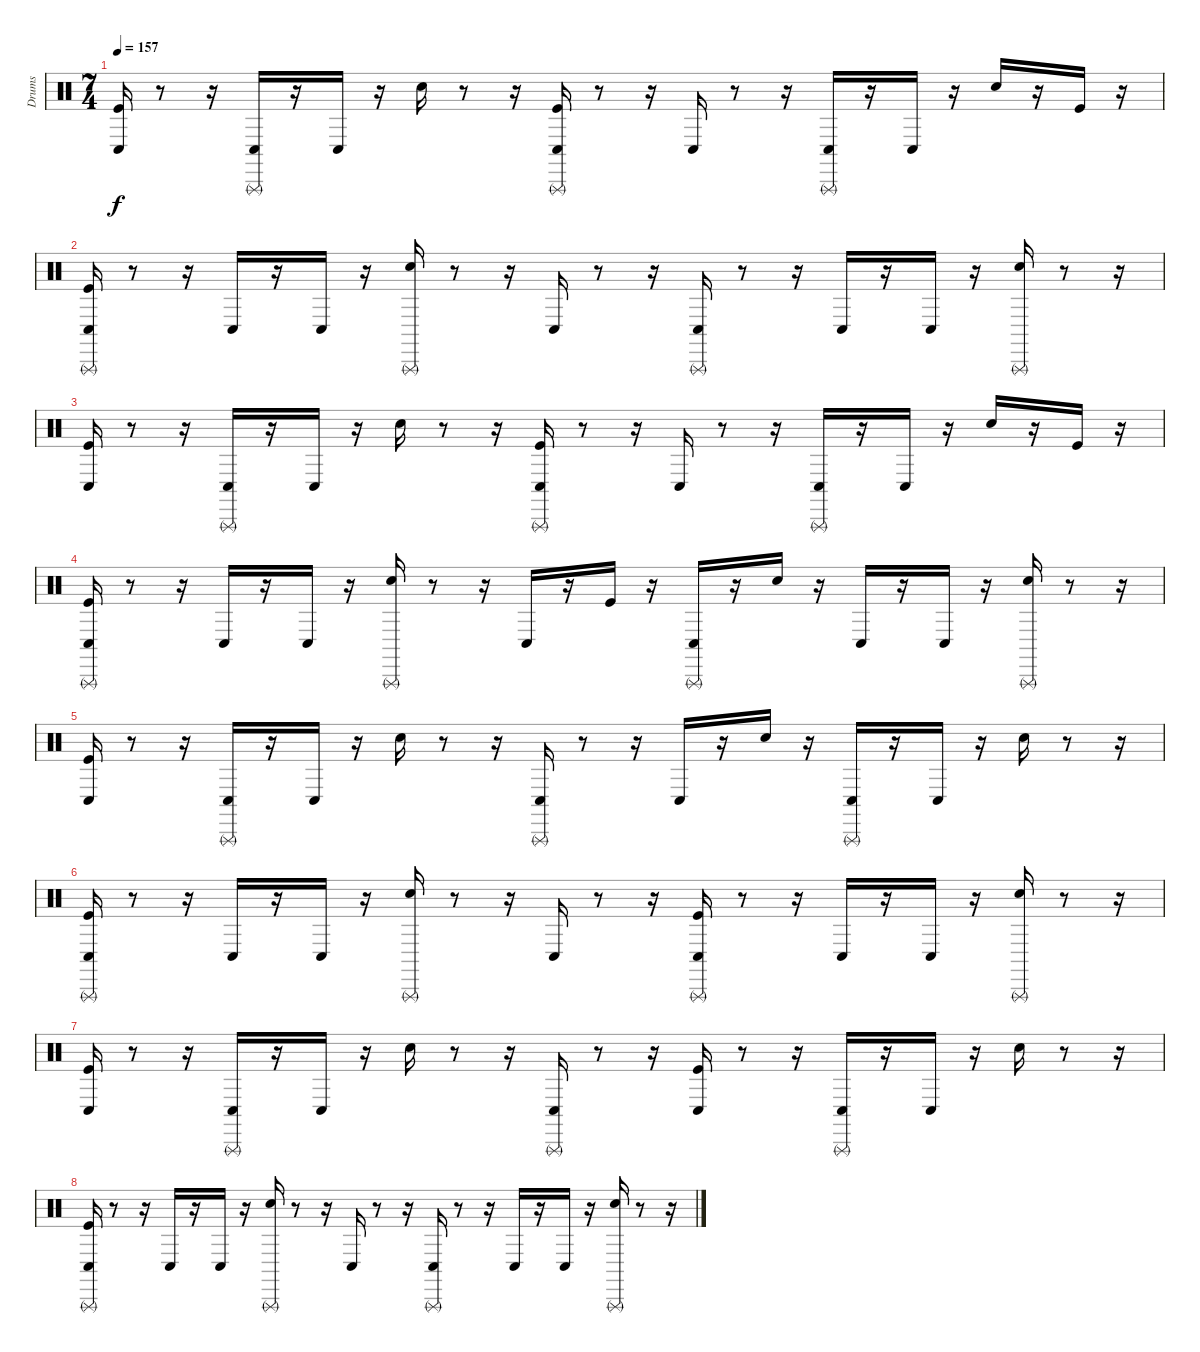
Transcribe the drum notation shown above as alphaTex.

\track ("Drums" "Drums") {instrument percussion}
\staff {score}
\articulation defaults
\ts (7 4)
\tempo 157
\clef neutral
\ks c
("Conga low (hit)" "Kick (hit)").16{dy f} r.8 r.16 ("Triangle (rnute)" "Conga low (hit)").16 r.16 "Conga low (hit)".16 r.16 "Snare (hit) 2".16 r.8 r.16 ("Conga low (hit)" "Kick (hit)" "Triangle (rnute)").16 r.8 r.16 "Conga low (hit)".16 r.8 r.16 ("Conga low (hit)" "Triangle (rnute)").16 r.16 "Conga low (hit)".16 r.16 "Snare (hit) 2".16 r.16 "Kick (hit)".16 r.16 |
("Conga low (hit)" "Kick (hit)" "Triangle (rnute)").16 r.8 r.16 "Conga low (hit)".16 r.16 "Conga low (hit)".16 r.16 ("Triangle (rnute)" "Snare (hit) 2").16 r.8 r.16 "Conga low (hit)".16 r.8 r.16 ("Triangle (rnute)" "Conga low (hit)").16 r.8 r.16 "Conga low (hit)".16 r.16 "Conga low (hit)".16 r.16 ("Snare (hit) 2" "Triangle (rnute)").16 r.8 r.16 |
("Kick (hit)" "Conga low (hit)").16 r.8 r.16 ("Triangle (rnute)" "Conga low (hit)").16 r.16 "Conga low (hit)".16 r.16 "Snare (hit) 2".16 r.8 r.16 ("Triangle (rnute)" "Kick (hit)" "Conga low (hit)").16 r.8 r.16 "Conga low (hit)".16 r.8 r.16 ("Conga low (hit)" "Triangle (rnute)").16 r.16 "Conga low (hit)".16 r.16 "Snare (hit) 2".16 r.16 "Kick (hit)".16 r.16 |
("Conga low (hit)" "Kick (hit)" "Triangle (rnute)").16 r.8 r.16 "Conga low (hit)".16 r.16 "Conga low (hit)".16 r.16 ("Triangle (rnute)" "Snare (hit) 2").16 r.8 r.16 "Conga low (hit)".16 r.16 "Kick (hit)".16 r.16 ("Conga low (hit)" "Triangle (rnute)").16 r.16 "Snare (hit) 2".16 r.16 "Conga low (hit)".16 r.16 "Conga low (hit)".16 r.16 ("Snare (hit) 2" "Triangle (rnute)").16 r.8 r.16 |
("Conga low (hit)" "Kick (hit)").16 r.8 r.16 ("Triangle (rnute)" "Conga low (hit)").16 r.16 "Conga low (hit)".16 r.16 "Snare (hit) 2".16 r.8 r.16 ("Conga low (hit)" "Triangle (rnute)").16 r.8 r.16 "Conga low (hit)".16 r.16 "Snare (hit) 2".16 r.16 ("Conga low (hit)" "Triangle (rnute)").16 r.16 "Conga low (hit)".16 r.16 "Snare (hit) 2".16 r.8 r.16 |
("Triangle (rnute)" "Kick (hit)" "Conga low (hit)").16 r.8 r.16 "Conga low (hit)".16 r.16 "Conga low (hit)".16 r.16 ("Triangle (rnute)" "Snare (hit) 2").16 r.8 r.16 "Conga low (hit)".16 r.8 r.16 ("Kick (hit)" "Conga low (hit)" "Triangle (rnute)").16 r.8 r.16 "Conga low (hit)".16 r.16 "Conga low (hit)".16 r.16 ("Triangle (rnute)" "Snare (hit) 2").16 r.8 r.16 |
("Conga low (hit)" "Kick (hit)").16 r.8 r.16 ("Conga low (hit)" "Triangle (rnute)").16 r.16 "Conga low (hit)".16 r.16 "Snare (hit) 2".16 r.8 r.16 ("Conga low (hit)" "Triangle (rnute)").16 r.8 r.16 ("Kick (hit)" "Conga low (hit)").16 r.8 r.16 ("Triangle (rnute)" "Conga low (hit)").16 r.16 "Conga low (hit)".16 r.16 "Snare (hit) 2".16 r.8 r.16 |
("Kick (hit)" "Conga low (hit)" "Triangle (rnute)").16 r.8 r.16 "Conga low (hit)".16 r.16 "Conga low (hit)".16 r.16 ("Triangle (rnute)" "Snare (hit) 2").16 r.8 r.16 "Conga low (hit)".16 r.8 r.16 ("Conga low (hit)" "Triangle (rnute)").16 r.8 r.16 "Conga low (hit)".16 r.16 "Conga low (hit)".16 r.16 ("Snare (hit) 2" "Triangle (rnute)").16 r.8 r.16
